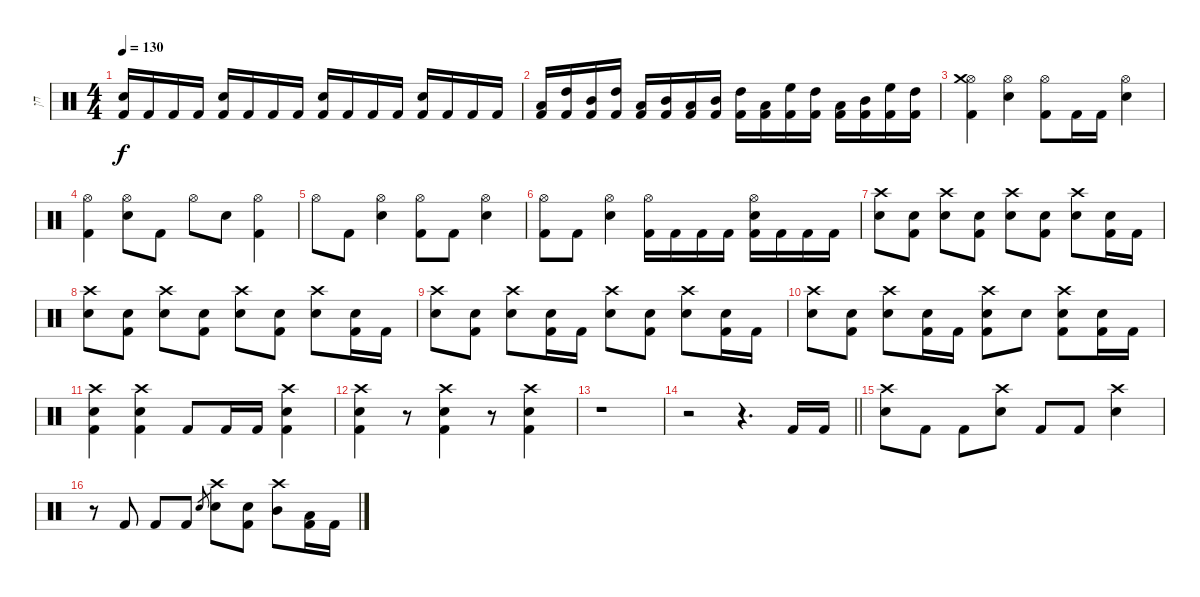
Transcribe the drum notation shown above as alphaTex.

\track ("חן" "חן") {instrument percussion}
\staff {score}
\articulation defaults
\ts (4 4)
\tempo 130
\clef neutral
\ks c
("Electric Snare (hit)" "Kick (hit) 2").16{dy f} "Kick (hit) 2".16 "Kick (hit) 2".16 "Kick (hit) 2".16 ("Electric Snare (hit)" "Kick (hit) 2").16 "Kick (hit) 2".16 "Kick (hit) 2".16 "Kick (hit) 2".16 ("Electric Snare (hit)" "Kick (hit) 2").16 "Kick (hit) 2".16 "Kick (hit) 2".16 "Kick (hit) 2".16 ("Electric Snare (hit)" "Kick (hit) 2").16 "Kick (hit) 2".16 "Kick (hit) 2".16 "Kick (hit) 2".16 |
("Low Tom (hit)" "Kick (hit) 2").16 ("High Tom (hit)" "Kick (hit) 2").16 ("Mid Tom (hit)" "Kick (hit) 2").16 ("High Tom (hit)" "Kick (hit) 2").16 ("Low Tom (hit)" "Kick (hit) 2").16 ("Mid Tom (hit)" "Kick (hit) 2").16 ("Low Tom (hit)" "Kick (hit) 2").16 ("Mid Tom (hit)" "Kick (hit) 2").16 ("High Tom (hit)" "Kick (hit) 2").16 ("Low Tom (hit)" "Kick (hit) 2").16 ("High Floor Tom (hit)" "Kick (hit) 2").16 ("High Tom (hit)" "Kick (hit) 2").16 ("Low Tom (hit)" "Kick (hit) 2").16 ("Mid Tom (hit)" "Kick (hit) 2").16 ("High Floor Tom (hit)" "Kick (hit) 2").16 ("High Tom (hit)" "Kick (hit) 2").16 |
("Hi-Hat (open)" "Crash medium (hit)" "Kick (hit) 2").4 ("Hi-Hat (open)" "Electric Snare (hit)").4 ("Hi-Hat (open)" "Kick (hit) 2").8 "Kick (hit) 2".16 "Kick (hit) 2".16 ("Hi-Hat (open)" "Electric Snare (hit)").4 |
("Hi-Hat (open)" "Kick (hit) 2").4 ("Hi-Hat (open)" "Electric Snare (hit)").8 "Kick (hit) 2".8 "Hi-Hat (open)".8 "Electric Snare (hit)".8 ("Hi-Hat (open)" "Kick (hit) 2").4 |
"Hi-Hat (open)".8 "Kick (hit) 2".8 ("Hi-Hat (open)" "Electric Snare (hit)").4 ("Hi-Hat (open)" "Kick (hit) 2").8 "Kick (hit) 2".8 ("Hi-Hat (open)" "Electric Snare (hit)").4 |
("Hi-Hat (open)" "Kick (hit) 2").8 "Kick (hit) 2".8 ("Hi-Hat (open)" "Electric Snare (hit)").4 ("Hi-Hat (open)" "Kick (hit) 2").16 "Kick (hit) 2".16 "Kick (hit) 2".16 "Kick (hit) 2".16 ("Hi-Hat (open)" "Electric Snare (hit)" "Kick (hit) 2").16 "Kick (hit) 2".16 "Kick (hit) 2".16 "Kick (hit) 2".16 |
("Crash high (hit)" "Electric Snare (hit)").8 ("Electric Snare (hit)" "Kick (hit) 2").8 ("Crash high (hit)" "Electric Snare (hit)").8 ("Electric Snare (hit)" "Kick (hit) 2").8 ("Crash high (hit)" "Electric Snare (hit)").8 ("Electric Snare (hit)" "Kick (hit) 2").8 ("Crash high (hit)" "Electric Snare (hit)").8 ("Electric Snare (hit)" "Kick (hit) 2").16 "Kick (hit) 2".16 |
("Crash high (hit)" "Electric Snare (hit)").8 ("Electric Snare (hit)" "Kick (hit) 2").8 ("Crash high (hit)" "Electric Snare (hit)").8 ("Electric Snare (hit)" "Kick (hit) 2").8 ("Crash high (hit)" "Electric Snare (hit)").8 ("Electric Snare (hit)" "Kick (hit) 2").8 ("Crash high (hit)" "Electric Snare (hit)").8 ("Electric Snare (hit)" "Kick (hit) 2").16 "Kick (hit) 2".16 |
("Crash high (hit)" "Electric Snare (hit)").8 ("Electric Snare (hit)" "Kick (hit) 2").8 ("Crash high (hit)" "Electric Snare (hit)").8 ("Electric Snare (hit)" "Kick (hit) 2").16 "Kick (hit) 2".16 ("Crash high (hit)" "Electric Snare (hit)").8 ("Electric Snare (hit)" "Kick (hit) 2").8 ("Crash high (hit)" "Electric Snare (hit)").8 ("Electric Snare (hit)" "Kick (hit) 2").16 "Kick (hit) 2".16 |
("Crash high (hit)" "Electric Snare (hit)").8 ("Electric Snare (hit)" "Kick (hit) 2").8 ("Crash high (hit)" "Electric Snare (hit)").8 ("Electric Snare (hit)" "Kick (hit) 2").16 "Kick (hit) 2".16 ("Crash high (hit)" "Electric Snare (hit)" "Kick (hit) 2").8 "Electric Snare (hit)".8 ("Crash high (hit)" "Electric Snare (hit)" "Kick (hit) 2").8 ("Electric Snare (hit)" "Kick (hit) 2").16 "Kick (hit) 2".16 |
("Crash high (hit)" "Electric Snare (hit)" "Kick (hit) 2").4 ("Crash high (hit)" "Electric Snare (hit)" "Kick (hit) 2").4 "Kick (hit) 2".8 "Kick (hit) 2".16 "Kick (hit) 2".16 ("Crash high (hit)" "Electric Snare (hit)" "Kick (hit) 2").4 |
("Crash high (hit)" "Electric Snare (hit)" "Kick (hit) 2").4 r.8 ("Crash high (hit)" "Electric Snare (hit)" "Kick (hit) 2").4 r.8 ("Crash high (hit)" "Electric Snare (hit)" "Kick (hit) 2").4 |
r.1 |
\barLineRight lightlight
r.2 r.4{d} "Kick (hit) 2".16 "Kick (hit) 2".16 |
("Crash high (hit)" "Electric Snare (hit)").8 "Kick (hit) 2".8 "Kick (hit) 2".8 ("Crash high (hit)" "Electric Snare (hit)").8 "Kick (hit) 2".8 "Kick (hit) 2".8 ("Crash high (hit)" "Electric Snare (hit)").4 |
r.8 "Kick (hit) 2".8 "Kick (hit) 2".8 "Kick (hit) 2".8 "Electric Snare (hit)".8{gr} ("Crash high (hit)" "Electric Snare (hit)").8 ("Electric Snare (hit)" "Kick (hit) 2").8 ("Crash high (hit)" "Mid Tom (hit)").8 ("Low Tom (hit)" "Kick (hit) 2").16 "Kick (hit) 2".16
